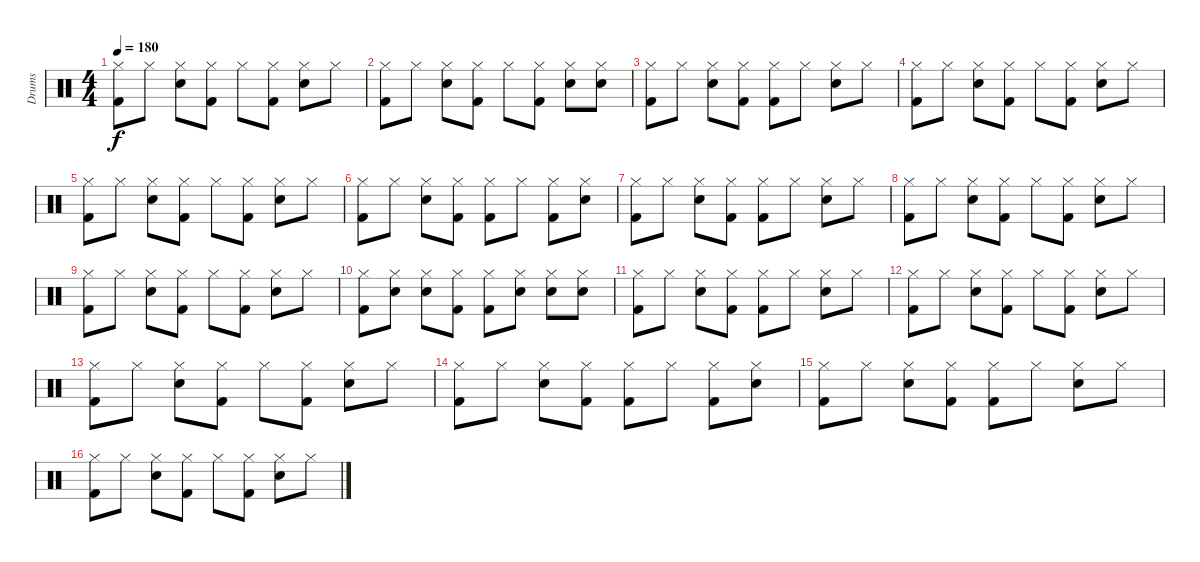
\track ("Drums" "Drums") {instrument percussion}
\staff {score}
\articulation defaults
\ts (4 4)
\tempo 180
\clef neutral
\ks c
("Hi-Hat (closed)" "Kick (hit) 2").8{dy f} "Hi-Hat (closed)".8 ("Hi-Hat (closed)" "Snare (hit) 2").8 ("Hi-Hat (closed)" "Kick (hit) 2").8 "Hi-Hat (closed)".8 ("Hi-Hat (closed)" "Kick (hit) 2").8 ("Hi-Hat (closed)" "Snare (hit) 2").8 "Hi-Hat (closed)".8 |
("Hi-Hat (closed)" "Kick (hit) 2").8 "Hi-Hat (closed)".8 ("Hi-Hat (closed)" "Snare (hit) 2").8 ("Hi-Hat (closed)" "Kick (hit) 2").8 "Hi-Hat (closed)".8 ("Hi-Hat (closed)" "Kick (hit) 2").8 ("Hi-Hat (closed)" "Snare (hit) 2").8 ("Hi-Hat (closed)" "Snare (hit) 2").8 |
("Hi-Hat (closed)" "Kick (hit) 2").8 "Hi-Hat (closed)".8 ("Hi-Hat (closed)" "Snare (hit) 2").8 ("Hi-Hat (closed)" "Kick (hit) 2").8 ("Hi-Hat (closed)" "Kick (hit) 2").8 "Hi-Hat (closed)".8 ("Hi-Hat (closed)" "Snare (hit) 2").8 "Hi-Hat (closed)".8 |
("Hi-Hat (closed)" "Kick (hit) 2").8 "Hi-Hat (closed)".8 ("Hi-Hat (closed)" "Snare (hit) 2").8 ("Hi-Hat (closed)" "Kick (hit) 2").8 "Hi-Hat (closed)".8 ("Hi-Hat (closed)" "Kick (hit) 2").8 ("Hi-Hat (closed)" "Snare (hit) 2").8 "Hi-Hat (closed)".8 |
("Hi-Hat (closed)" "Kick (hit) 2").8 "Hi-Hat (closed)".8 ("Hi-Hat (closed)" "Snare (hit) 2").8 ("Hi-Hat (closed)" "Kick (hit) 2").8 "Hi-Hat (closed)".8 ("Hi-Hat (closed)" "Kick (hit) 2").8 ("Hi-Hat (closed)" "Snare (hit) 2").8 "Hi-Hat (closed)".8 |
("Hi-Hat (closed)" "Kick (hit) 2").8 "Hi-Hat (closed)".8 ("Hi-Hat (closed)" "Snare (hit) 2").8 ("Hi-Hat (closed)" "Kick (hit) 2").8 ("Hi-Hat (closed)" "Kick (hit) 2").8 "Hi-Hat (closed)".8 ("Hi-Hat (closed)" "Kick (hit) 2").8 ("Hi-Hat (closed)" "Snare (hit) 2").8 |
("Hi-Hat (closed)" "Kick (hit) 2").8 "Hi-Hat (closed)".8 ("Hi-Hat (closed)" "Snare (hit) 2").8 ("Hi-Hat (closed)" "Kick (hit) 2").8 ("Hi-Hat (closed)" "Kick (hit) 2").8 "Hi-Hat (closed)".8 ("Hi-Hat (closed)" "Snare (hit) 2").8 "Hi-Hat (closed)".8 |
("Hi-Hat (closed)" "Kick (hit) 2").8 "Hi-Hat (closed)".8 ("Hi-Hat (closed)" "Snare (hit) 2").8 ("Hi-Hat (closed)" "Kick (hit) 2").8 "Hi-Hat (closed)".8 ("Hi-Hat (closed)" "Kick (hit) 2").8 ("Hi-Hat (closed)" "Snare (hit) 2").8 "Hi-Hat (closed)".8 |
("Hi-Hat (closed)" "Kick (hit) 2").8 "Hi-Hat (closed)".8 ("Hi-Hat (closed)" "Snare (hit) 2").8 ("Hi-Hat (closed)" "Kick (hit) 2").8 "Hi-Hat (closed)".8 ("Hi-Hat (closed)" "Kick (hit) 2").8 ("Hi-Hat (closed)" "Snare (hit) 2").8 "Hi-Hat (closed)".8 |
("Hi-Hat (closed)" "Kick (hit) 2").8 ("Hi-Hat (closed)" "Snare (hit) 2").8 ("Hi-Hat (closed)" "Snare (hit) 2").8 ("Hi-Hat (closed)" "Kick (hit) 2").8 ("Hi-Hat (closed)" "Kick (hit) 2").8 ("Hi-Hat (closed)" "Snare (hit) 2").8 ("Hi-Hat (closed)" "Snare (hit) 2").8 ("Hi-Hat (closed)" "Snare (hit) 2").8 |
("Hi-Hat (closed)" "Kick (hit) 2").8 "Hi-Hat (closed)".8 ("Hi-Hat (closed)" "Snare (hit) 2").8 ("Hi-Hat (closed)" "Kick (hit) 2").8 ("Hi-Hat (closed)" "Kick (hit) 2").8 "Hi-Hat (closed)".8 ("Hi-Hat (closed)" "Snare (hit) 2").8 "Hi-Hat (closed)".8 |
("Hi-Hat (closed)" "Kick (hit) 2").8 "Hi-Hat (closed)".8 ("Hi-Hat (closed)" "Snare (hit) 2").8 ("Hi-Hat (closed)" "Kick (hit) 2").8 "Hi-Hat (closed)".8 ("Hi-Hat (closed)" "Kick (hit) 2").8 ("Hi-Hat (closed)" "Snare (hit) 2").8 "Hi-Hat (closed)".8 |
("Hi-Hat (closed)" "Kick (hit) 2").8 "Hi-Hat (closed)".8 ("Hi-Hat (closed)" "Snare (hit) 2").8 ("Hi-Hat (closed)" "Kick (hit) 2").8 "Hi-Hat (closed)".8 ("Hi-Hat (closed)" "Kick (hit) 2").8 ("Hi-Hat (closed)" "Snare (hit) 2").8 "Hi-Hat (closed)".8 |
("Hi-Hat (closed)" "Kick (hit) 2").8 "Hi-Hat (closed)".8 ("Hi-Hat (closed)" "Snare (hit) 2").8 ("Hi-Hat (closed)" "Kick (hit) 2").8 ("Hi-Hat (closed)" "Kick (hit) 2").8 "Hi-Hat (closed)".8 ("Hi-Hat (closed)" "Kick (hit) 2").8 ("Hi-Hat (closed)" "Snare (hit) 2").8 |
("Hi-Hat (closed)" "Kick (hit) 2").8 "Hi-Hat (closed)".8 ("Hi-Hat (closed)" "Snare (hit) 2").8 ("Hi-Hat (closed)" "Kick (hit) 2").8 ("Hi-Hat (closed)" "Kick (hit) 2").8 "Hi-Hat (closed)".8 ("Hi-Hat (closed)" "Snare (hit) 2").8 "Hi-Hat (closed)".8 |
("Hi-Hat (closed)" "Kick (hit) 2").8 "Hi-Hat (closed)".8 ("Hi-Hat (closed)" "Snare (hit) 2").8 ("Hi-Hat (closed)" "Kick (hit) 2").8 "Hi-Hat (closed)".8 ("Hi-Hat (closed)" "Kick (hit) 2").8 ("Hi-Hat (closed)" "Snare (hit) 2").8 "Hi-Hat (closed)".8
